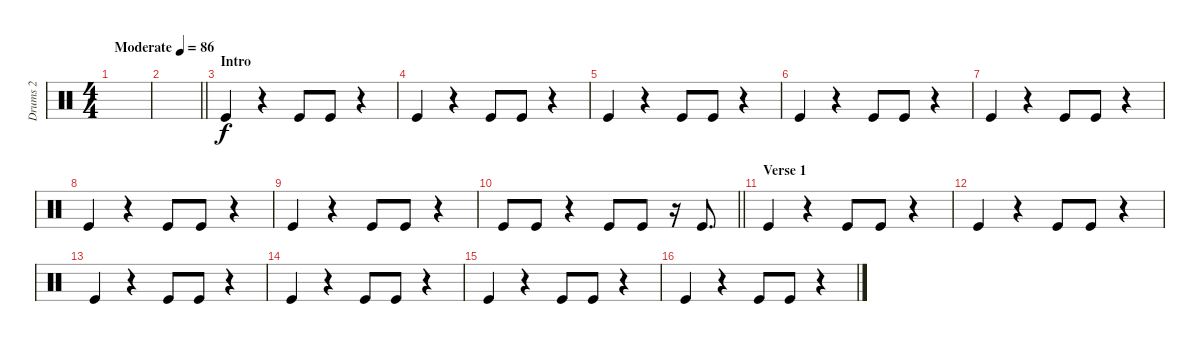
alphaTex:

\track ("Drums 2" "Drums 2") {instrument percussion}
\staff {score}
\articulation defaults
\ts (4 4)
\tempo (86 "Moderate")
\clef neutral
\ks c
|
\barLineRight lightlight
|
\section ("" "Intro")
"Kick (hit)".4 r.4 "Kick (hit)".8 "Kick (hit)".8 r.4 |
"Kick (hit)".4 r.4 "Kick (hit)".8 "Kick (hit)".8 r.4 |
"Kick (hit)".4 r.4 "Kick (hit)".8 "Kick (hit)".8 r.4 |
"Kick (hit)".4 r.4 "Kick (hit)".8 "Kick (hit)".8 r.4 |
"Kick (hit)".4 r.4 "Kick (hit)".8 "Kick (hit)".8 r.4 |
"Kick (hit)".4 r.4 "Kick (hit)".8 "Kick (hit)".8 r.4 |
"Kick (hit)".4 r.4 "Kick (hit)".8 "Kick (hit)".8 r.4 |
\barLineRight lightlight "Kick (hit)".8 "Kick (hit)".8
r.4 "Kick (hit)".8 "Kick (hit)".8 r.16 "Kick (hit)".8{d} |
\section ("" "Verse 1")
"Kick (hit)".4 r.4 "Kick (hit)".8 "Kick (hit)".8 r.4 |
"Kick (hit)".4 r.4 "Kick (hit)".8 "Kick (hit)".8 r.4 |
"Kick (hit)".4 r.4 "Kick (hit)".8 "Kick (hit)".8 r.4 |
"Kick (hit)".4 r.4 "Kick (hit)".8 "Kick (hit)".8 r.4 |
"Kick (hit)".4 r.4 "Kick (hit)".8 "Kick (hit)".8 r.4 |
"Kick (hit)".4 r.4 "Kick (hit)".8 "Kick (hit)".8 r.4
